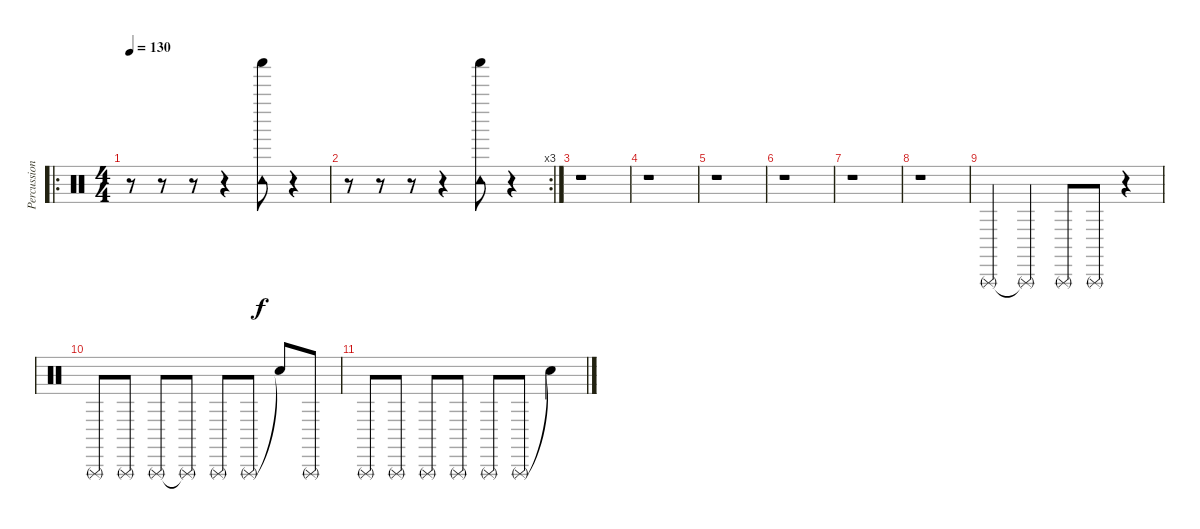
\track ("Percussion" "Percussion") {instrument percussion}
\staff {score}
\articulation defaults
\ro
\ts (4 4)
\tempo 130
\clef neutral
\ks c
r.8{dy f} r.8 r.8 r.4 ("Shaker (hit)" "Tambourine (hit)").8 r.4 |
\rc 3
r.8 r.8 r.8 r.4 ("Shaker (hit)" "Tambourine (hit)").8 r.4 |
r.1 |
r.1 |
r.1 |
r.1 |
r.1 |
r.1 |
"Triangle (rnute)".4 "Triangle (rnute)"{t}.4 "Triangle (rnute)".8 "Triangle (rnute)".8 r.4 |
"Triangle (rnute)".8 "Triangle (rnute)".8 "Triangle (rnute)".8 "Triangle (rnute)"{t}.8 "Triangle (rnute)".8 "Triangle (rnute)".8 "Snare (hit)"{t}.8 "Triangle (rnute)".8 |
"Triangle (rnute)".8 "Triangle (rnute)".8 "Triangle (rnute)".8 "Triangle (rnute)".8 "Triangle (rnute)".8 "Triangle (rnute)".8 "Snare (hit)"{t}.4
